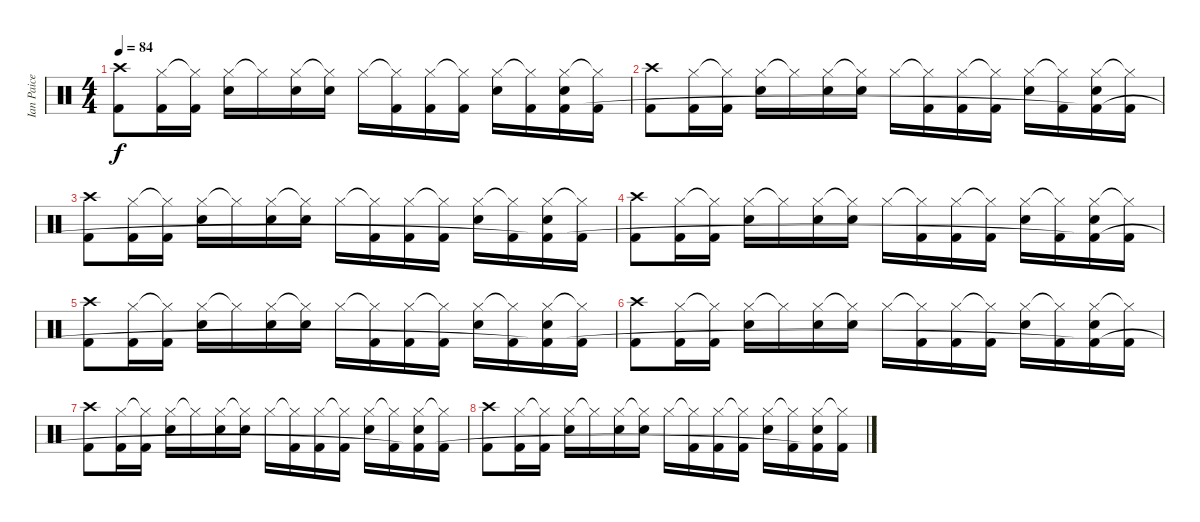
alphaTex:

\track ("Ian Paice" "Ian Paice") {instrument percussion}
\staff {score}
\articulation defaults
\ts (4 4)
\tempo 84
\clef neutral
\ks c
("Crash high (hit)" "Kick (hit) 2").8{dy f} ("Hi-Hat (closed)" "Kick (hit) 2").16 ("Hi-Hat (closed)"{t} "Kick (hit) 2").16 ("Hi-Hat (closed)" "Snare (hit) 2").16 "Hi-Hat (closed)"{t}.16 ("Hi-Hat (closed)" "Snare (hit) 2").16 ("Hi-Hat (closed)"{t} "Snare (hit) 2").16 "Hi-Hat (closed)".16 ("Hi-Hat (closed)"{t} "Kick (hit) 2").16 ("Hi-Hat (closed)" "Kick (hit) 2").16 ("Hi-Hat (closed)"{t} "Kick (hit) 2").16 ("Hi-Hat (closed)" "Snare (hit) 2").16 ("Hi-Hat (closed)"{t} "Kick (hit) 2").16 ("Hi-Hat (closed)" "Snare (hit) 2" "Kick (hit) 2"{t}).16 ("Hi-Hat (closed)"{t} "Kick (hit) 2").16 |
("Crash high (hit)" "Kick (hit) 2").8 ("Hi-Hat (closed)" "Kick (hit) 2").16 ("Hi-Hat (closed)"{t} "Kick (hit) 2").16 ("Hi-Hat (closed)" "Snare (hit) 2").16 "Hi-Hat (closed)"{t}.16 ("Hi-Hat (closed)" "Snare (hit) 2").16 ("Hi-Hat (closed)"{t} "Snare (hit) 2").16 "Hi-Hat (closed)".16 ("Hi-Hat (closed)"{t} "Kick (hit) 2").16 ("Hi-Hat (closed)" "Kick (hit) 2").16 ("Hi-Hat (closed)"{t} "Kick (hit) 2").16 ("Hi-Hat (closed)" "Snare (hit) 2").16 ("Hi-Hat (closed)"{t} "Kick (hit) 2").16 ("Hi-Hat (closed)" "Snare (hit) 2" "Kick (hit) 2"{t}).16 ("Hi-Hat (closed)"{t} "Kick (hit) 2").16 |
("Crash high (hit)" "Kick (hit) 2").8 ("Hi-Hat (closed)" "Kick (hit) 2").16 ("Hi-Hat (closed)"{t} "Kick (hit) 2").16 ("Hi-Hat (closed)" "Snare (hit) 2").16 "Hi-Hat (closed)"{t}.16 ("Hi-Hat (closed)" "Snare (hit) 2").16 ("Hi-Hat (closed)"{t} "Snare (hit) 2").16 "Hi-Hat (closed)".16 ("Hi-Hat (closed)"{t} "Kick (hit) 2").16 ("Hi-Hat (closed)" "Kick (hit) 2").16 ("Hi-Hat (closed)"{t} "Kick (hit) 2").16 ("Hi-Hat (closed)" "Snare (hit) 2").16 ("Hi-Hat (closed)"{t} "Kick (hit) 2").16 ("Hi-Hat (closed)" "Snare (hit) 2" "Kick (hit) 2"{t}).16 ("Hi-Hat (closed)"{t} "Kick (hit) 2").16 |
("Crash high (hit)" "Kick (hit) 2").8 ("Hi-Hat (closed)" "Kick (hit) 2").16 ("Hi-Hat (closed)"{t} "Kick (hit) 2").16 ("Hi-Hat (closed)" "Snare (hit) 2").16 "Hi-Hat (closed)"{t}.16 ("Hi-Hat (closed)" "Snare (hit) 2").16 ("Hi-Hat (closed)"{t} "Snare (hit) 2").16 "Hi-Hat (closed)".16 ("Hi-Hat (closed)"{t} "Kick (hit) 2").16 ("Hi-Hat (closed)" "Kick (hit) 2").16 ("Hi-Hat (closed)"{t} "Kick (hit) 2").16 ("Hi-Hat (closed)" "Snare (hit) 2").16 ("Hi-Hat (closed)"{t} "Kick (hit) 2").16 ("Hi-Hat (closed)" "Snare (hit) 2" "Kick (hit) 2"{t}).16 ("Hi-Hat (closed)"{t} "Kick (hit) 2").16 |
("Crash high (hit)" "Kick (hit) 2").8 ("Hi-Hat (closed)" "Kick (hit) 2").16 ("Hi-Hat (closed)"{t} "Kick (hit) 2").16 ("Hi-Hat (closed)" "Snare (hit) 2").16 "Hi-Hat (closed)"{t}.16 ("Hi-Hat (closed)" "Snare (hit) 2").16 ("Hi-Hat (closed)"{t} "Snare (hit) 2").16 "Hi-Hat (closed)".16 ("Hi-Hat (closed)"{t} "Kick (hit) 2").16 ("Hi-Hat (closed)" "Kick (hit) 2").16 ("Hi-Hat (closed)"{t} "Kick (hit) 2").16 ("Hi-Hat (closed)" "Snare (hit) 2").16 ("Hi-Hat (closed)"{t} "Kick (hit) 2").16 ("Hi-Hat (closed)" "Snare (hit) 2" "Kick (hit) 2"{t}).16 ("Hi-Hat (closed)"{t} "Kick (hit) 2").16 |
("Crash high (hit)" "Kick (hit) 2").8 ("Hi-Hat (closed)" "Kick (hit) 2").16 ("Hi-Hat (closed)"{t} "Kick (hit) 2").16 ("Hi-Hat (closed)" "Snare (hit) 2").16 "Hi-Hat (closed)"{t}.16 ("Hi-Hat (closed)" "Snare (hit) 2").16 ("Hi-Hat (closed)"{t} "Snare (hit) 2").16 "Hi-Hat (closed)".16 ("Hi-Hat (closed)"{t} "Kick (hit) 2").16 ("Hi-Hat (closed)" "Kick (hit) 2").16 ("Hi-Hat (closed)"{t} "Kick (hit) 2").16 ("Hi-Hat (closed)" "Snare (hit) 2").16 ("Hi-Hat (closed)"{t} "Kick (hit) 2").16 ("Hi-Hat (closed)" "Snare (hit) 2" "Kick (hit) 2"{t}).16 ("Hi-Hat (closed)"{t} "Kick (hit) 2").16 |
("Crash high (hit)" "Kick (hit) 2").8 ("Hi-Hat (closed)" "Kick (hit) 2").16 ("Hi-Hat (closed)"{t} "Kick (hit) 2").16 ("Hi-Hat (closed)" "Snare (hit) 2").16 "Hi-Hat (closed)"{t}.16 ("Hi-Hat (closed)" "Snare (hit) 2").16 ("Hi-Hat (closed)"{t} "Snare (hit) 2").16 "Hi-Hat (closed)".16 ("Hi-Hat (closed)"{t} "Kick (hit) 2").16 ("Hi-Hat (closed)" "Kick (hit) 2").16 ("Hi-Hat (closed)"{t} "Kick (hit) 2").16 ("Hi-Hat (closed)" "Snare (hit) 2").16 ("Hi-Hat (closed)"{t} "Kick (hit) 2").16 ("Hi-Hat (closed)" "Snare (hit) 2" "Kick (hit) 2"{t}).16 ("Hi-Hat (closed)"{t} "Kick (hit) 2").16 |
("Crash high (hit)" "Kick (hit) 2").8 ("Hi-Hat (closed)" "Kick (hit) 2").16 ("Hi-Hat (closed)"{t} "Kick (hit) 2").16 ("Hi-Hat (closed)" "Snare (hit) 2").16 "Hi-Hat (closed)"{t}.16 ("Hi-Hat (closed)" "Snare (hit) 2").16 ("Hi-Hat (closed)"{t} "Snare (hit) 2").16 "Hi-Hat (closed)".16 ("Hi-Hat (closed)"{t} "Kick (hit) 2").16 ("Hi-Hat (closed)" "Kick (hit) 2").16 ("Hi-Hat (closed)"{t} "Kick (hit) 2").16 ("Hi-Hat (closed)" "Snare (hit) 2").16 ("Hi-Hat (closed)"{t} "Kick (hit) 2").16 ("Hi-Hat (closed)" "Snare (hit) 2" "Kick (hit) 2"{t}).16 ("Hi-Hat (closed)"{t} "Kick (hit) 2").16
